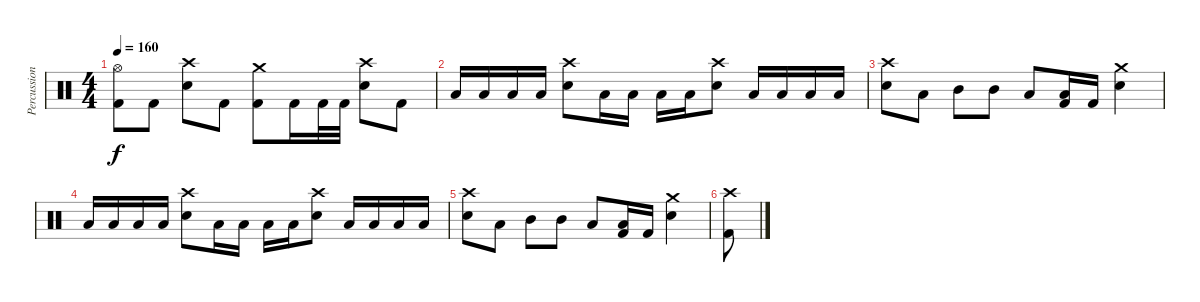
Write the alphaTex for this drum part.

\track ("Percussioni" "Percussion") {instrument percussion}
\staff {score}
\articulation defaults
\ts (4 4)
\tempo 160
\clef neutral
\ks c
("Hi-Hat (open)" "Kick (hit) 2").8{dy f} "Kick (hit) 2".8 ("Crash high (hit)" "Electric Snare (hit)").8 "Kick (hit) 2".8 ("Crash medium (hit)" "Kick (hit) 2").8 "Kick (hit) 2".16 "Kick (hit) 2".32 "Kick (hit) 2".32 ("Crash high (hit)" "Electric Snare (hit)").8 "Kick (hit) 2".8 |
"Low Tom (hit)".16 "Low Tom (hit)".16 "Low Tom (hit)".16 "Low Tom (hit)".16 ("Electric Snare (hit)" "Crash high (hit)").8 "Low Tom (hit)".16 "Low Tom (hit)".16 "Low Tom (hit)".16 "Low Tom (hit)".16 ("Electric Snare (hit)" "Crash high (hit)").8 "Low Tom (hit)".16 "Low Tom (hit)".16 "Low Tom (hit)".16 "Low Tom (hit)".16 |
("Crash high (hit)" "Electric Snare (hit)").8 "Low Tom (hit)".8 "Mid Tom (hit)".8 "Mid Tom (hit)".8 "Low Tom (hit)".8 ("Low Tom (hit)" "Kick (hit) 2").16 "Kick (hit) 2".16 ("Crash medium (hit)" "Electric Snare (hit)").4 |
"Low Tom (hit)".16 "Low Tom (hit)".16 "Low Tom (hit)".16 "Low Tom (hit)".16 ("Electric Snare (hit)" "Crash high (hit)").8 "Low Tom (hit)".16 "Low Tom (hit)".16 "Low Tom (hit)".16 "Low Tom (hit)".16 ("Electric Snare (hit)" "Crash high (hit)").8 "Low Tom (hit)".16 "Low Tom (hit)".16 "Low Tom (hit)".16 "Low Tom (hit)".16 |
("Crash high (hit)" "Electric Snare (hit)").8 "Low Tom (hit)".8 "Mid Tom (hit)".8 "Mid Tom (hit)".8 "Low Tom (hit)".8 ("Low Tom (hit)" "Kick (hit) 2").16 "Kick (hit) 2".16 ("Crash medium (hit)" "Electric Snare (hit)").4 |
("Kick (hit) 2" "Crash high (hit)").8
